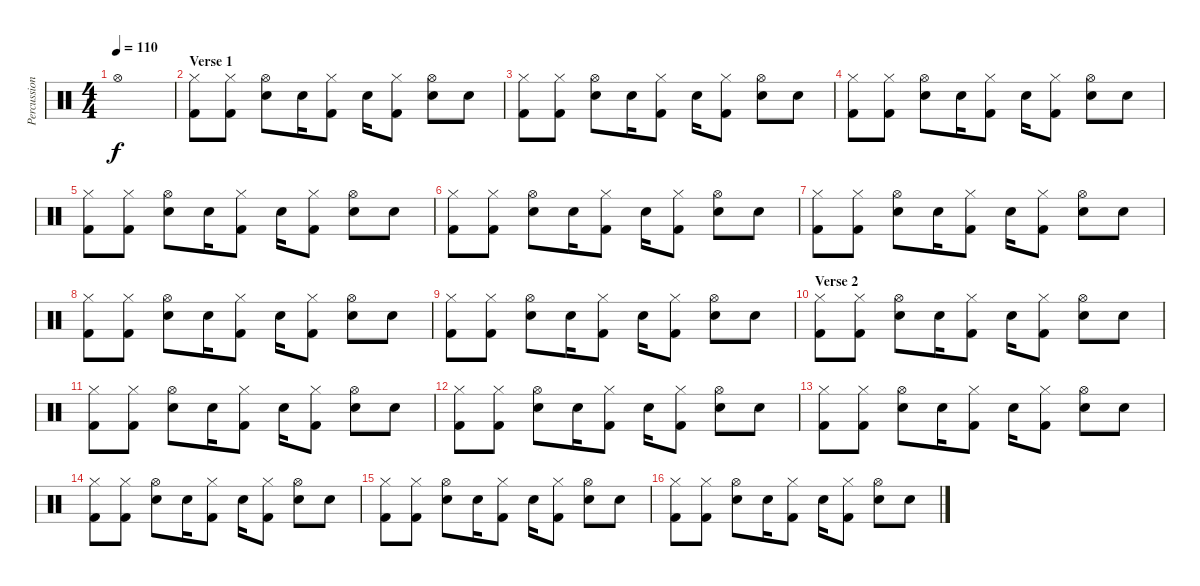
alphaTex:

\track ("Percussion" "Percussion") {instrument percussion}
\staff {score}
\articulation defaults
\ts (4 4)
\tempo 110
\clef neutral
\ks c "Hi-Hat (open)".1{dy f}
|
\section ("" "Verse 1")
("Hi-Hat (closed)" "Kick (hit) 2").8 ("Hi-Hat (closed)" "Kick (hit) 2").8 ("Hi-Hat (open)" "Electric Snare (hit)").8 "Electric Snare (hit)".16 ("Hi-Hat (closed)" "Kick (hit) 2").8 "Electric Snare (hit)".16 ("Hi-Hat (closed)" "Kick (hit) 2").8 ("Hi-Hat (open)" "Electric Snare (hit)").8 "Electric Snare (hit)".8 |
("Hi-Hat (closed)" "Kick (hit) 2").8 ("Hi-Hat (closed)" "Kick (hit) 2").8 ("Hi-Hat (open)" "Electric Snare (hit)").8 "Electric Snare (hit)".16 ("Hi-Hat (closed)" "Kick (hit) 2").8 "Electric Snare (hit)".16 ("Hi-Hat (closed)" "Kick (hit) 2").8 ("Hi-Hat (open)" "Electric Snare (hit)").8 "Electric Snare (hit)".8 |
("Hi-Hat (closed)" "Kick (hit) 2").8 ("Hi-Hat (closed)" "Kick (hit) 2").8 ("Hi-Hat (open)" "Electric Snare (hit)").8 "Electric Snare (hit)".16 ("Hi-Hat (closed)" "Kick (hit) 2").8 "Electric Snare (hit)".16 ("Hi-Hat (closed)" "Kick (hit) 2").8 ("Hi-Hat (open)" "Electric Snare (hit)").8 "Electric Snare (hit)".8 |
("Hi-Hat (closed)" "Kick (hit) 2").8 ("Hi-Hat (closed)" "Kick (hit) 2").8 ("Hi-Hat (open)" "Electric Snare (hit)").8 "Electric Snare (hit)".16 ("Hi-Hat (closed)" "Kick (hit) 2").8 "Electric Snare (hit)".16 ("Hi-Hat (closed)" "Kick (hit) 2").8 ("Hi-Hat (open)" "Electric Snare (hit)").8 "Electric Snare (hit)".8 |
("Hi-Hat (closed)" "Kick (hit) 2").8 ("Hi-Hat (closed)" "Kick (hit) 2").8 ("Hi-Hat (open)" "Electric Snare (hit)").8 "Electric Snare (hit)".16 ("Hi-Hat (closed)" "Kick (hit) 2").8 "Electric Snare (hit)".16 ("Hi-Hat (closed)" "Kick (hit) 2").8 ("Hi-Hat (open)" "Electric Snare (hit)").8 "Electric Snare (hit)".8 |
("Hi-Hat (closed)" "Kick (hit) 2").8 ("Hi-Hat (closed)" "Kick (hit) 2").8 ("Hi-Hat (open)" "Electric Snare (hit)").8 "Electric Snare (hit)".16 ("Hi-Hat (closed)" "Kick (hit) 2").8 "Electric Snare (hit)".16 ("Hi-Hat (closed)" "Kick (hit) 2").8 ("Hi-Hat (open)" "Electric Snare (hit)").8 "Electric Snare (hit)".8 |
("Hi-Hat (closed)" "Kick (hit) 2").8 ("Hi-Hat (closed)" "Kick (hit) 2").8 ("Hi-Hat (open)" "Electric Snare (hit)").8 "Electric Snare (hit)".16 ("Hi-Hat (closed)" "Kick (hit) 2").8 "Electric Snare (hit)".16 ("Hi-Hat (closed)" "Kick (hit) 2").8 ("Hi-Hat (open)" "Electric Snare (hit)").8 "Electric Snare (hit)".8 |
("Hi-Hat (closed)" "Kick (hit) 2").8 ("Hi-Hat (closed)" "Kick (hit) 2").8 ("Hi-Hat (open)" "Electric Snare (hit)").8 "Electric Snare (hit)".16 ("Hi-Hat (closed)" "Kick (hit) 2").8 "Electric Snare (hit)".16 ("Hi-Hat (closed)" "Kick (hit) 2").8 ("Hi-Hat (open)" "Electric Snare (hit)").8 "Electric Snare (hit)".8 |
\section ("" "Verse 2")
("Hi-Hat (closed)" "Kick (hit) 2").8 ("Hi-Hat (closed)" "Kick (hit) 2").8 ("Hi-Hat (open)" "Electric Snare (hit)").8 "Electric Snare (hit)".16 ("Hi-Hat (closed)" "Kick (hit) 2").8 "Electric Snare (hit)".16 ("Hi-Hat (closed)" "Kick (hit) 2").8 ("Hi-Hat (open)" "Electric Snare (hit)").8 "Electric Snare (hit)".8 |
("Hi-Hat (closed)" "Kick (hit) 2").8 ("Hi-Hat (closed)" "Kick (hit) 2").8 ("Hi-Hat (open)" "Electric Snare (hit)").8 "Electric Snare (hit)".16 ("Hi-Hat (closed)" "Kick (hit) 2").8 "Electric Snare (hit)".16 ("Hi-Hat (closed)" "Kick (hit) 2").8 ("Hi-Hat (open)" "Electric Snare (hit)").8 "Electric Snare (hit)".8 |
("Hi-Hat (closed)" "Kick (hit) 2").8 ("Hi-Hat (closed)" "Kick (hit) 2").8 ("Hi-Hat (open)" "Electric Snare (hit)").8 "Electric Snare (hit)".16 ("Hi-Hat (closed)" "Kick (hit) 2").8 "Electric Snare (hit)".16 ("Hi-Hat (closed)" "Kick (hit) 2").8 ("Hi-Hat (open)" "Electric Snare (hit)").8 "Electric Snare (hit)".8 |
("Hi-Hat (closed)" "Kick (hit) 2").8 ("Hi-Hat (closed)" "Kick (hit) 2").8 ("Hi-Hat (open)" "Electric Snare (hit)").8 "Electric Snare (hit)".16 ("Hi-Hat (closed)" "Kick (hit) 2").8 "Electric Snare (hit)".16 ("Hi-Hat (closed)" "Kick (hit) 2").8 ("Hi-Hat (open)" "Electric Snare (hit)").8 "Electric Snare (hit)".8 |
("Hi-Hat (closed)" "Kick (hit) 2").8 ("Hi-Hat (closed)" "Kick (hit) 2").8 ("Hi-Hat (open)" "Electric Snare (hit)").8 "Electric Snare (hit)".16 ("Hi-Hat (closed)" "Kick (hit) 2").8 "Electric Snare (hit)".16 ("Hi-Hat (closed)" "Kick (hit) 2").8 ("Hi-Hat (open)" "Electric Snare (hit)").8 "Electric Snare (hit)".8 |
("Hi-Hat (closed)" "Kick (hit) 2").8 ("Hi-Hat (closed)" "Kick (hit) 2").8 ("Hi-Hat (open)" "Electric Snare (hit)").8 "Electric Snare (hit)".16 ("Hi-Hat (closed)" "Kick (hit) 2").8 "Electric Snare (hit)".16 ("Hi-Hat (closed)" "Kick (hit) 2").8 ("Hi-Hat (open)" "Electric Snare (hit)").8 "Electric Snare (hit)".8 |
("Hi-Hat (closed)" "Kick (hit) 2").8 ("Hi-Hat (closed)" "Kick (hit) 2").8 ("Hi-Hat (open)" "Electric Snare (hit)").8 "Electric Snare (hit)".16 ("Hi-Hat (closed)" "Kick (hit) 2").8 "Electric Snare (hit)".16 ("Hi-Hat (closed)" "Kick (hit) 2").8 ("Hi-Hat (open)" "Electric Snare (hit)").8 "Electric Snare (hit)".8
